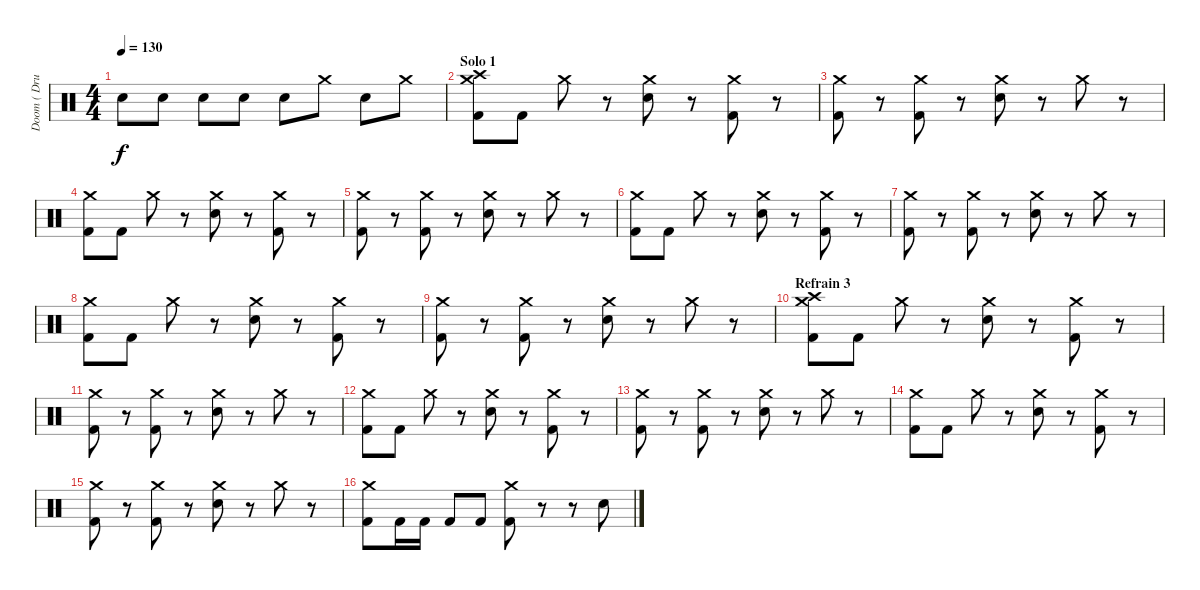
\track ("Doom ( Drums )" "Doom ( Dru") {instrument percussion}
\staff {score}
\articulation defaults
\ts (4 4)
\tempo 130
\clef neutral
\ks c "Electric Snare (hit)".8{dy f} "Electric Snare (hit)".8 "Electric Snare (hit)".8 "Electric Snare (hit)".8 "Electric Snare (hit)".8 "Crash medium (hit)".8 "Electric Snare (hit)".8 "Crash medium (hit)".8
|
\section ("" "Solo 1")
("Crash high (hit)" "Kick (hit) 2" "Crash medium (hit)").8 "Kick (hit) 2".8 "Crash medium (hit)".8 r.8 ("Electric Snare (hit)" "Crash medium (hit)").8 r.8 ("Kick (hit) 2" "Crash medium (hit)").8 r.8 |
("Kick (hit) 2" "Crash medium (hit)").8 r.8 ("Kick (hit) 2" "Crash medium (hit)").8 r.8 ("Electric Snare (hit)" "Crash medium (hit)").8 r.8 "Crash medium (hit)".8 r.8 |
("Kick (hit) 2" "Crash medium (hit)").8 "Kick (hit) 2".8 "Crash medium (hit)".8 r.8 ("Electric Snare (hit)" "Crash medium (hit)").8 r.8 ("Kick (hit) 2" "Crash medium (hit)").8 r.8 |
("Kick (hit) 2" "Crash medium (hit)").8 r.8 ("Kick (hit) 2" "Crash medium (hit)").8 r.8 ("Electric Snare (hit)" "Crash medium (hit)").8 r.8 "Crash medium (hit)".8 r.8 |
("Kick (hit) 2" "Crash medium (hit)").8 "Kick (hit) 2".8 "Crash medium (hit)".8 r.8 ("Electric Snare (hit)" "Crash medium (hit)").8 r.8 ("Kick (hit) 2" "Crash medium (hit)").8 r.8 |
("Kick (hit) 2" "Crash medium (hit)").8 r.8 ("Kick (hit) 2" "Crash medium (hit)").8 r.8 ("Electric Snare (hit)" "Crash medium (hit)").8 r.8 "Crash medium (hit)".8 r.8 |
("Kick (hit) 2" "Crash medium (hit)").8 "Kick (hit) 2".8 "Crash medium (hit)".8 r.8 ("Electric Snare (hit)" "Crash medium (hit)").8 r.8 ("Kick (hit) 2" "Crash medium (hit)").8 r.8 |
("Kick (hit) 2" "Crash medium (hit)").8 r.8 ("Kick (hit) 2" "Crash medium (hit)").8 r.8 ("Electric Snare (hit)" "Crash medium (hit)").8 r.8 "Crash medium (hit)".8 r.8 |
\section ("" "Refrain 3")
("Crash high (hit)" "Kick (hit) 2" "Crash medium (hit)").8 "Kick (hit) 2".8 "Crash medium (hit)".8 r.8 ("Electric Snare (hit)" "Crash medium (hit)").8 r.8 ("Kick (hit) 2" "Crash medium (hit)").8 r.8 |
("Kick (hit) 2" "Crash medium (hit)").8 r.8 ("Kick (hit) 2" "Crash medium (hit)").8 r.8 ("Electric Snare (hit)" "Crash medium (hit)").8 r.8 "Crash medium (hit)".8 r.8 |
("Kick (hit) 2" "Crash medium (hit)").8 "Kick (hit) 2".8 "Crash medium (hit)".8 r.8 ("Electric Snare (hit)" "Crash medium (hit)").8 r.8 ("Kick (hit) 2" "Crash medium (hit)").8 r.8 |
("Kick (hit) 2" "Crash medium (hit)").8 r.8 ("Kick (hit) 2" "Crash medium (hit)").8 r.8 ("Electric Snare (hit)" "Crash medium (hit)").8 r.8 "Crash medium (hit)".8 r.8 |
("Kick (hit) 2" "Crash medium (hit)").8 "Kick (hit) 2".8 "Crash medium (hit)".8 r.8 ("Electric Snare (hit)" "Crash medium (hit)").8 r.8 ("Kick (hit) 2" "Crash medium (hit)").8 r.8 |
("Kick (hit) 2" "Crash medium (hit)").8 r.8 ("Kick (hit) 2" "Crash medium (hit)").8 r.8 ("Electric Snare (hit)" "Crash medium (hit)").8 r.8 "Crash medium (hit)".8 r.8 |
("Kick (hit) 2" "Crash medium (hit)").8 "Kick (hit) 2".16 "Kick (hit) 2".16 "Kick (hit) 2".8 "Kick (hit) 2".8 ("Kick (hit) 2" "Crash medium (hit)").8 r.8 r.8 "Electric Snare (hit)".8
